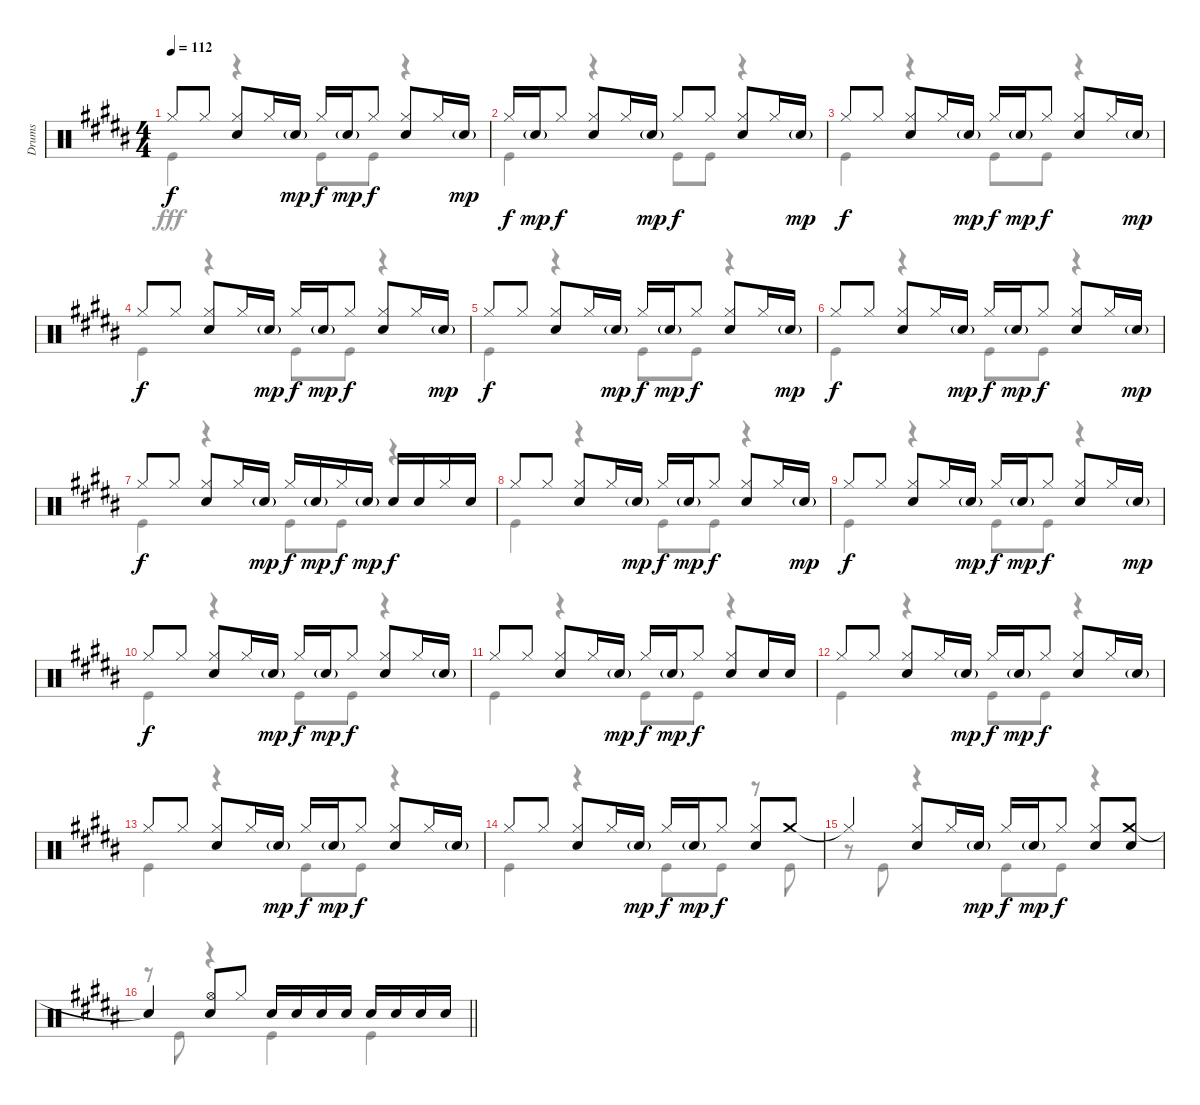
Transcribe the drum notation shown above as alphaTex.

\track ("Drums" "Drums") {instrument percussion}
\staff {score}
\articulation defaults
\voice
\ts (4 4)
\tempo 112
\clef neutral
\ks b "Hi-Hat (closed)".8{dy f} "Hi-Hat (closed)".8
("Hi-Hat (closed)" "Snare (hit) 2").8 "Hi-Hat (closed)".16 "Snare (hit) 2"{g}.16{dy mp} "Hi-Hat (closed)".16{dy f} "Snare (hit) 2"{g}.16{dy mp} "Hi-Hat (closed)".8{dy f} ("Hi-Hat (closed)" "Snare (hit) 2").8 "Hi-Hat (closed)".16 "Snare (hit) 2"{g}.16{dy mp} |
"Hi-Hat (closed)".16{dy f} "Snare (hit) 2"{g}.16{dy mp} "Hi-Hat (closed)".8{dy f} ("Hi-Hat (closed)" "Snare (hit) 2").8 "Hi-Hat (closed)".16 "Snare (hit) 2"{g}.16{dy mp} "Hi-Hat (closed)".8{dy f} "Hi-Hat (closed)".8 ("Hi-Hat (closed)" "Snare (hit) 2").8 "Hi-Hat (closed)".16 "Snare (hit) 2"{g}.16{dy mp} |
"Hi-Hat (closed)".8{dy f} "Hi-Hat (closed)".8 ("Hi-Hat (closed)" "Snare (hit) 2").8 "Hi-Hat (closed)".16 "Snare (hit) 2"{g}.16{dy mp} "Hi-Hat (closed)".16{dy f} "Snare (hit) 2"{g}.16{dy mp} "Hi-Hat (closed)".8{dy f} ("Hi-Hat (closed)" "Snare (hit) 2").8 "Hi-Hat (closed)".16 "Snare (hit) 2"{g}.16{dy mp} |
"Hi-Hat (closed)".8{dy f} "Hi-Hat (closed)".8 ("Hi-Hat (closed)" "Snare (hit) 2").8 "Hi-Hat (closed)".16 "Snare (hit) 2"{g}.16{dy mp} "Hi-Hat (closed)".16{dy f} "Snare (hit) 2"{g}.16{dy mp} "Hi-Hat (closed)".8{dy f} ("Hi-Hat (closed)" "Snare (hit) 2").8 "Hi-Hat (closed)".16 "Snare (hit) 2"{g}.16{dy mp} |
"Hi-Hat (closed)".8{dy f} "Hi-Hat (closed)".8 ("Hi-Hat (closed)" "Snare (hit) 2").8 "Hi-Hat (closed)".16 "Snare (hit) 2"{g}.16{dy mp} "Hi-Hat (closed)".16{dy f} "Snare (hit) 2"{g}.16{dy mp} "Hi-Hat (closed)".8{dy f} ("Hi-Hat (closed)" "Snare (hit) 2").8 "Hi-Hat (closed)".16 "Snare (hit) 2"{g}.16{dy mp} |
"Hi-Hat (closed)".8{dy f} "Hi-Hat (closed)".8 ("Hi-Hat (closed)" "Snare (hit) 2").8 "Hi-Hat (closed)".16 "Snare (hit) 2"{g}.16{dy mp} "Hi-Hat (closed)".16{dy f} "Snare (hit) 2"{g}.16{dy mp} "Hi-Hat (closed)".8{dy f} ("Hi-Hat (closed)" "Snare (hit) 2").8 "Hi-Hat (closed)".16 "Snare (hit) 2"{g}.16{dy mp} |
"Hi-Hat (closed)".8{dy f} "Hi-Hat (closed)".8 ("Hi-Hat (closed)" "Snare (hit) 2").8 "Hi-Hat (closed)".16 "Snare (hit) 2"{g}.16{dy mp} "Hi-Hat (closed)".16{dy f} "Snare (hit) 2"{g}.16{dy mp} "Hi-Hat (closed)".16{dy f} "Snare (hit) 2"{g}.16{dy mp} "Snare (hit) 2".16{dy f} "Snare (hit) 2".16 "Hi-Hat (closed)".16 "Snare (hit) 2".16 |
"Hi-Hat (closed)".8 "Hi-Hat (closed)".8 ("Hi-Hat (closed)" "Snare (hit) 2").8 "Hi-Hat (closed)".16 "Snare (hit) 2"{g}.16{dy mp} "Hi-Hat (closed)".16{dy f} "Snare (hit) 2"{g}.16{dy mp} "Hi-Hat (closed)".8{dy f} ("Hi-Hat (closed)" "Snare (hit) 2").8 "Hi-Hat (closed)".16 "Snare (hit) 2"{g}.16{dy mp} |
"Hi-Hat (closed)".8{dy f} "Hi-Hat (closed)".8 ("Hi-Hat (closed)" "Snare (hit) 2").8 "Hi-Hat (closed)".16 "Snare (hit) 2"{g}.16{dy mp} "Hi-Hat (closed)".16{dy f} "Snare (hit) 2"{g}.16{dy mp} "Hi-Hat (closed)".8{dy f} ("Hi-Hat (closed)" "Snare (hit) 2").8 "Hi-Hat (closed)".16 "Snare (hit) 2"{g}.16{dy mp} |
"Hi-Hat (closed)".8{dy f} "Hi-Hat (closed)".8 ("Hi-Hat (closed)" "Snare (hit) 2").8 "Hi-Hat (closed)".16 "Snare (hit) 2"{g}.16{dy mp} "Hi-Hat (closed)".16{dy f} "Snare (hit) 2"{g}.16{dy mp} "Hi-Hat (closed)".8{dy f} ("Hi-Hat (closed)" "Snare (hit) 2").8 "Hi-Hat (closed)".16 "Snare (hit) 2"{g}.16 |
"Hi-Hat (closed)".8 "Hi-Hat (closed)".8 ("Hi-Hat (closed)" "Snare (hit) 2").8 "Hi-Hat (closed)".16 "Snare (hit) 2"{g}.16{dy mp} "Hi-Hat (closed)".16{dy f} "Snare (hit) 2"{g}.16{dy mp} "Hi-Hat (closed)".8{dy f} ("Hi-Hat (closed)" "Snare (hit) 2").8 "Snare (hit) 2".16 "Snare (hit) 2".16 |
"Hi-Hat (closed)".8 "Hi-Hat (closed)".8 ("Hi-Hat (closed)" "Snare (hit) 2").8 "Hi-Hat (closed)".16 "Snare (hit) 2"{g}.16{dy mp} "Hi-Hat (closed)".16{dy f} "Snare (hit) 2"{g}.16{dy mp} "Hi-Hat (closed)".8{dy f} ("Hi-Hat (closed)" "Snare (hit) 2").8 "Hi-Hat (closed)".16 "Snare (hit) 2"{g}.16 |
"Hi-Hat (closed)".8 "Hi-Hat (closed)".8 ("Hi-Hat (closed)" "Snare (hit) 2").8 "Hi-Hat (closed)".16 "Snare (hit) 2"{g}.16{dy mp} "Hi-Hat (closed)".16{dy f} "Snare (hit) 2"{g}.16{dy mp} "Hi-Hat (closed)".8{dy f} ("Hi-Hat (closed)" "Snare (hit) 2").8 "Hi-Hat (closed)".16 "Snare (hit) 2"{g}.16 |
"Hi-Hat (closed)".8 "Hi-Hat (closed)".8 ("Hi-Hat (closed)" "Snare (hit) 2").8 "Hi-Hat (closed)".16 "Snare (hit) 2"{g}.16{dy mp} "Hi-Hat (closed)".16{dy f} "Snare (hit) 2"{g}.16{dy mp} "Hi-Hat (closed)".8{dy f} ("Hi-Hat (closed)" "Snare (hit) 2").8 "Crash medium (hit)".8 |
"Hi-Hat (closed)"{t}.4 ("Hi-Hat (closed)" "Snare (hit) 2").8 "Hi-Hat (closed)".16 "Snare (hit) 2"{g}.16{dy mp} "Hi-Hat (closed)".16{dy f} "Snare (hit) 2"{g}.16{dy mp} "Hi-Hat (closed)".8{dy f} ("Hi-Hat (closed)" "Snare (hit) 2").8 ("Crash medium (hit)" "Snare (hit) 2").8 |
\barLineRight lightlight "Snare (hit)"{t}.4
("Hi-Hat (open)" "Snare (hit) 2").8 "Hi-Hat (closed)".8 "Snare (hit) 2".16 "Snare (hit) 2".16 "Snare (hit) 2".16 "Snare (hit) 2".16 "Snare (hit) 2".16 "Snare (hit) 2".16 "Snare (hit) 2".16 "Snare (hit) 2".16
\voice
\clef neutral
\ottava regular
\simile none
\ks b "Kick (hit)".4{dy fff}
r.4 "Kick (hit)".8 "Kick (hit)".8 r.4 |
"Kick (hit)".4 r.4 "Kick (hit)".8 "Kick (hit)".8 r.4 |
"Kick (hit)".4 r.4 "Kick (hit)".8 "Kick (hit)".8 r.4 |
"Kick (hit)".4 r.4 "Kick (hit)".8 "Kick (hit)".8 r.4 |
"Kick (hit)".4 r.4 "Kick (hit)".8 "Kick (hit)".8 r.4 |
"Kick (hit)".4 r.4 "Kick (hit)".8 "Kick (hit)".8 r.4 |
"Kick (hit)".4 r.4 "Kick (hit)".8 "Kick (hit)".8 r.4 |
"Kick (hit)".4 r.4 "Kick (hit)".8 "Kick (hit)".8 r.4 |
"Kick (hit)".4 r.4 "Kick (hit)".8 "Kick (hit)".8 r.4 |
"Kick (hit)".4 r.4 "Kick (hit)".8 "Kick (hit)".8 r.4 |
"Kick (hit)".4 r.4 "Kick (hit)".8 "Kick (hit)".8 r.4 |
"Kick (hit)".4 r.4 "Kick (hit)".8 "Kick (hit)".8 r.4 |
"Kick (hit)".4 r.4 "Kick (hit)".8 "Kick (hit)".8 r.4 |
"Kick (hit)".4 r.4 "Kick (hit)".8 "Kick (hit)".8 r.8 "Kick (hit)".8 |
r.8 "Kick (hit)".8 r.4 "Kick (hit)".8 "Kick (hit)".8 r.4 |
\barLineRight lightlight
r.8 "Kick (hit)".8 r.4 "Kick (hit)".4 "Kick (hit)".4
